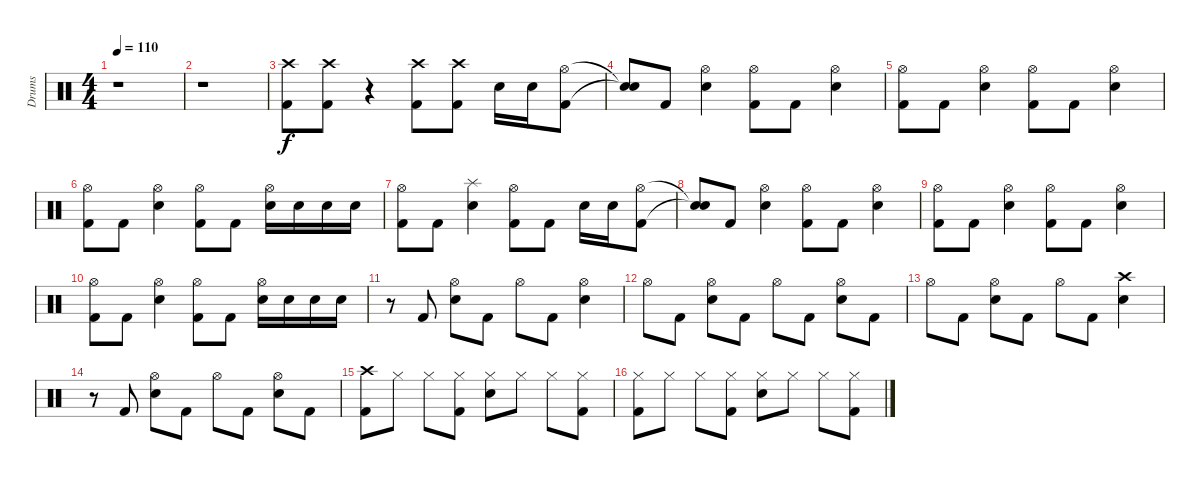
\track ("Drums" "Drums") {instrument percussion}
\staff {score}
\articulation defaults
\ts (4 4)
\tempo 110
\clef neutral
\ks c
r.1{dy f} |
r.1 |
("Kick (hit) 2" "Crash high (hit)").8 ("Kick (hit) 2" "Crash high (hit)").8 r.4 ("Kick (hit) 2" "Crash high (hit)").8 ("Kick (hit) 2" "Crash high (hit)").8 "Snare (hit) 2".16 "Snare (hit) 2".16 ("Kick (hit) 2" "Hi-Hat (open)").8 |
("Snare (hit)"{t} "Snare (hit)"{t}).8 "Kick (hit) 2".8 ("Hi-Hat (open)" "Snare (hit) 2").4 ("Kick (hit) 2" "Hi-Hat (open)").8 "Kick (hit) 2".8 ("Hi-Hat (open)" "Snare (hit) 2").4 |
("Kick (hit) 2" "Hi-Hat (open)").8 "Kick (hit) 2".8 ("Hi-Hat (open)" "Snare (hit) 2").4 ("Kick (hit) 2" "Hi-Hat (open)").8 "Kick (hit) 2".8 ("Hi-Hat (open)" "Snare (hit) 2").4 |
("Kick (hit) 2" "Hi-Hat (open)").8 "Kick (hit) 2".8 ("Hi-Hat (open)" "Snare (hit) 2").4 ("Kick (hit) 2" "Hi-Hat (open)").8 "Kick (hit) 2".8 ("Hi-Hat (open)" "Snare (hit) 2").16 "Snare (hit) 2".16 "Snare (hit) 2".16 "Snare (hit) 2".16 |
("Kick (hit) 2" "Hi-Hat (open)").8 "Kick (hit) 2".8 ("Splash (hit)" "Snare (hit) 2").4 ("Kick (hit) 2" "Hi-Hat (open)").8 "Kick (hit) 2".8 "Snare (hit) 2".16 "Snare (hit) 2".16 ("Kick (hit) 2" "Hi-Hat (open)").8 |
("Snare (hit)"{t} "Snare (hit)"{t}).8 "Kick (hit) 2".8 ("Hi-Hat (open)" "Snare (hit) 2").4 ("Kick (hit) 2" "Hi-Hat (open)").8 "Kick (hit) 2".8 ("Hi-Hat (open)" "Snare (hit) 2").4 |
("Kick (hit) 2" "Hi-Hat (open)").8 "Kick (hit) 2".8 ("Hi-Hat (open)" "Snare (hit) 2").4 ("Kick (hit) 2" "Hi-Hat (open)").8 "Kick (hit) 2".8 ("Hi-Hat (open)" "Snare (hit) 2").4 |
("Kick (hit) 2" "Hi-Hat (open)").8 "Kick (hit) 2".8 ("Hi-Hat (open)" "Snare (hit) 2").4 ("Kick (hit) 2" "Hi-Hat (open)").8 "Kick (hit) 2".8 ("Hi-Hat (open)" "Snare (hit) 2").16 "Snare (hit) 2".16 "Snare (hit) 2".16 "Snare (hit) 2".16 |
r.8 "Kick (hit) 2".8 ("Hi-Hat (open)" "Snare (hit) 2").8 "Kick (hit) 2".8 "Hi-Hat (open)".8 "Kick (hit) 2".8 ("Hi-Hat (open)" "Snare (hit) 2").4 |
"Hi-Hat (open)".8 "Kick (hit) 2".8 ("Hi-Hat (open)" "Snare (hit) 2").8 "Kick (hit) 2".8 "Hi-Hat (open)".8 "Kick (hit) 2".8 ("Hi-Hat (open)" "Snare (hit) 2").8 "Kick (hit) 2".8 |
"Hi-Hat (open)".8 "Kick (hit) 2".8 ("Hi-Hat (open)" "Snare (hit) 2").8 "Kick (hit) 2".8 "Hi-Hat (open)".8 "Kick (hit) 2".8 ("Crash high (hit)" "Snare (hit) 2").4 |
r.8 "Kick (hit) 2".8 ("Hi-Hat (open)" "Snare (hit) 2").8 "Kick (hit) 2".8 "Hi-Hat (open)".8 "Kick (hit) 2".8 ("Hi-Hat (open)" "Snare (hit) 2").8 "Kick (hit) 2".8 |
("Kick (hit) 2" "Crash high (hit)").8 "Hi-Hat (closed)".8 "Hi-Hat (closed)".8 ("Kick (hit) 2" "Hi-Hat (closed)").8 ("Hi-Hat (closed)" "Snare (hit) 2").8 "Hi-Hat (closed)".8 "Hi-Hat (closed)".8 ("Kick (hit) 2" "Hi-Hat (closed)").8 |
("Kick (hit) 2" "Hi-Hat (closed)").8 "Hi-Hat (closed)".8 "Hi-Hat (closed)".8 ("Kick (hit) 2" "Hi-Hat (closed)").8 ("Hi-Hat (closed)" "Snare (hit) 2").8 "Hi-Hat (closed)".8 "Hi-Hat (closed)".8 ("Kick (hit) 2" "Hi-Hat (closed)").8
